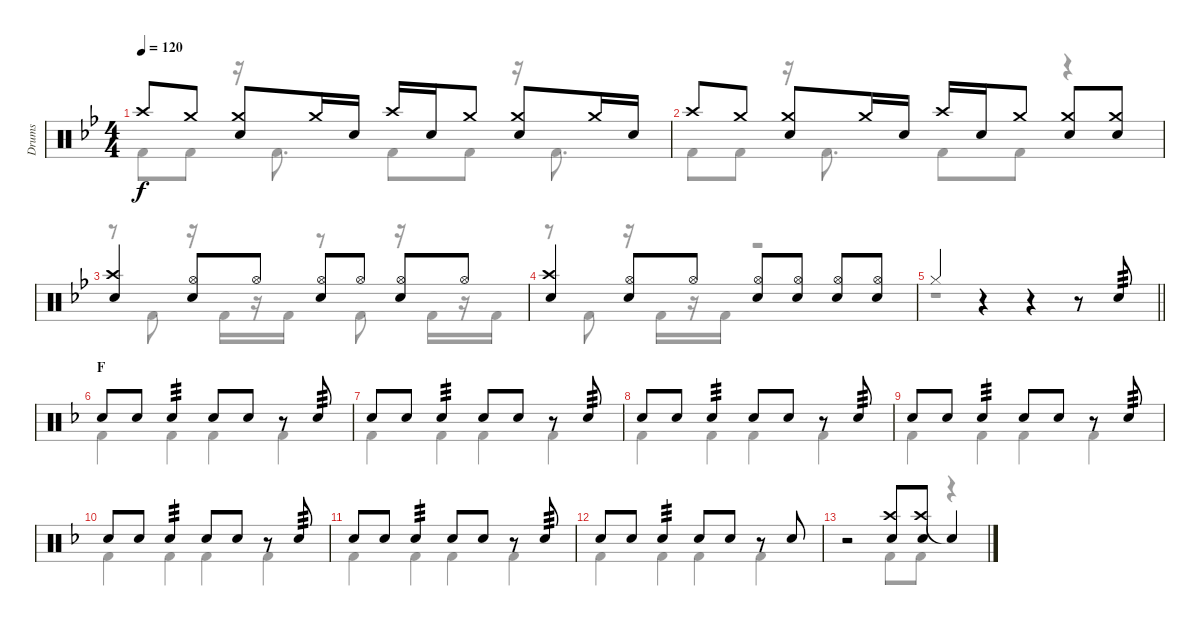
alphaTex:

\track ("Drums" "Drums") {instrument percussion}
\staff {score}
\articulation defaults
\voice
\ts (4 4)
\tempo 120
\clef neutral
\ks bb "Crash high (hit)".8{dy f} "Crash medium (hit)".8
("Crash medium (hit)" "Snare (hit) 2").8 "Crash medium (hit)".16 "Snare (hit) 2".16 "Crash high (hit)".16 "Snare (hit) 2".16 "Crash medium (hit)".8 ("Crash medium (hit)" "Snare (hit) 2").8 "Crash medium (hit)".16 "Snare (hit) 2".16 |
"Crash high (hit)".8 "Crash medium (hit)".8 ("Crash medium (hit)" "Snare (hit) 2").8 "Crash medium (hit)".16 "Snare (hit) 2".16 "Crash high (hit)".16 "Snare (hit) 2".16 "Crash medium (hit)".8 ("Crash medium (hit)" "Snare (hit) 2").8 ("Crash medium (hit)" "Snare (hit) 2").8 |
("Crash high (hit)" "Snare (hit) 2").4 ("Hi-Hat (open)" "Snare (hit) 2").8 "Hi-Hat (open)".8 ("Hi-Hat (open)" "Snare (hit) 2").8 "Hi-Hat (open)".8 ("Hi-Hat (open)" "Snare (hit) 2").8 "Hi-Hat (open)".8 |
("Crash high (hit)" "Snare (hit) 2").4 ("Hi-Hat (open)" "Snare (hit) 2").8 "Hi-Hat (open)".8 ("Hi-Hat (open)" "Snare (hit) 2").8 ("Hi-Hat (open)" "Snare (hit) 2").8 ("Hi-Hat (open)" "Snare (hit) 2").8 ("Hi-Hat (open)" "Snare (hit) 2").8 |
\barLineRight lightlight "Hi-Hat (closed)".4
r.4 r.4 r.8 "Snare (hit) 2".8{tp 3} |
\section ("" "F")
\ks f "Snare (hit) 2".8 "Snare (hit) 2".8 "Snare (hit) 2".4{tp 3} "Snare (hit) 2".8 "Snare (hit) 2".8
r.8 "Snare (hit) 2".8{tp 3} |
"Snare (hit) 2".8 "Snare (hit) 2".8 "Snare (hit) 2".4{tp 3} "Snare (hit) 2".8 "Snare (hit) 2".8 r.8 "Snare (hit) 2".8{tp 3} |
"Snare (hit) 2".8 "Snare (hit) 2".8 "Snare (hit) 2".4{tp 3} "Snare (hit) 2".8 "Snare (hit) 2".8 r.8 "Snare (hit) 2".8{tp 3} |
"Snare (hit) 2".8 "Snare (hit) 2".8 "Snare (hit) 2".4{tp 3} "Snare (hit) 2".8 "Snare (hit) 2".8 r.8 "Snare (hit) 2".8{tp 3} |
"Snare (hit) 2".8 "Snare (hit) 2".8 "Snare (hit) 2".4{tp 3} "Snare (hit) 2".8 "Snare (hit) 2".8 r.8 "Snare (hit) 2".8{tp 3} |
"Snare (hit) 2".8 "Snare (hit) 2".8 "Snare (hit) 2".4{tp 3} "Snare (hit) 2".8 "Snare (hit) 2".8 r.8 "Snare (hit) 2".8{tp 3} |
"Snare (hit) 2".8 "Snare (hit) 2".8 "Snare (hit) 2".4{tp 3} "Snare (hit) 2".8 "Snare (hit) 2".8 r.8 "Snare (hit) 2".8 |
r.2 ("Crash high (hit)" "Snare (hit) 2").8 ("Crash high (hit)" "Snare (hit) 2").8 "Snare (hit)"{t}.4
\voice
\clef neutral
\ottava regular
\simile none
\ks bb "Kick (hit) 2".8{dy f} "Kick (hit) 2".8
r.16 "Kick (hit) 2".8{d} "Kick (hit) 2".8 "Kick (hit) 2".8 r.16 "Kick (hit) 2".8{d} |
"Kick (hit) 2".8 "Kick (hit) 2".8 r.16 "Kick (hit) 2".8{d} "Kick (hit) 2".8 "Kick (hit) 2".8 r.4 |
r.8 "Kick (hit) 2".8 r.16 "Kick (hit) 2".16 r.16 "Kick (hit) 2".16 r.8 "Kick (hit) 2".8 r.16 "Kick (hit) 2".16 r.16 "Kick (hit) 2".16 |
r.8 "Kick (hit) 2".8 r.16 "Kick (hit) 2".16 r.16 "Kick (hit) 2".16 r.2 |
\barLineRight lightlight
r.1 |
\ks f "Kick (hit) 2".4 "Kick (hit) 2".4 "Kick (hit) 2".4 "Kick (hit) 2".4
|
"Kick (hit) 2".4 "Kick (hit) 2".4 "Kick (hit) 2".4 "Kick (hit) 2".4 |
"Kick (hit) 2".4 "Kick (hit) 2".4 "Kick (hit) 2".4 "Kick (hit) 2".4 |
"Kick (hit) 2".4 "Kick (hit) 2".4 "Kick (hit) 2".4 "Kick (hit) 2".4 |
"Kick (hit) 2".4 "Kick (hit) 2".4 "Kick (hit) 2".4 "Kick (hit) 2".4 |
"Kick (hit) 2".4 "Kick (hit) 2".4 "Kick (hit) 2".4 "Kick (hit) 2".4 |
"Kick (hit) 2".4 "Kick (hit) 2".4 "Kick (hit) 2".4 "Kick (hit) 2".4 |
r.2 "Kick (hit) 2".8 "Kick (hit) 2".8 r.4
